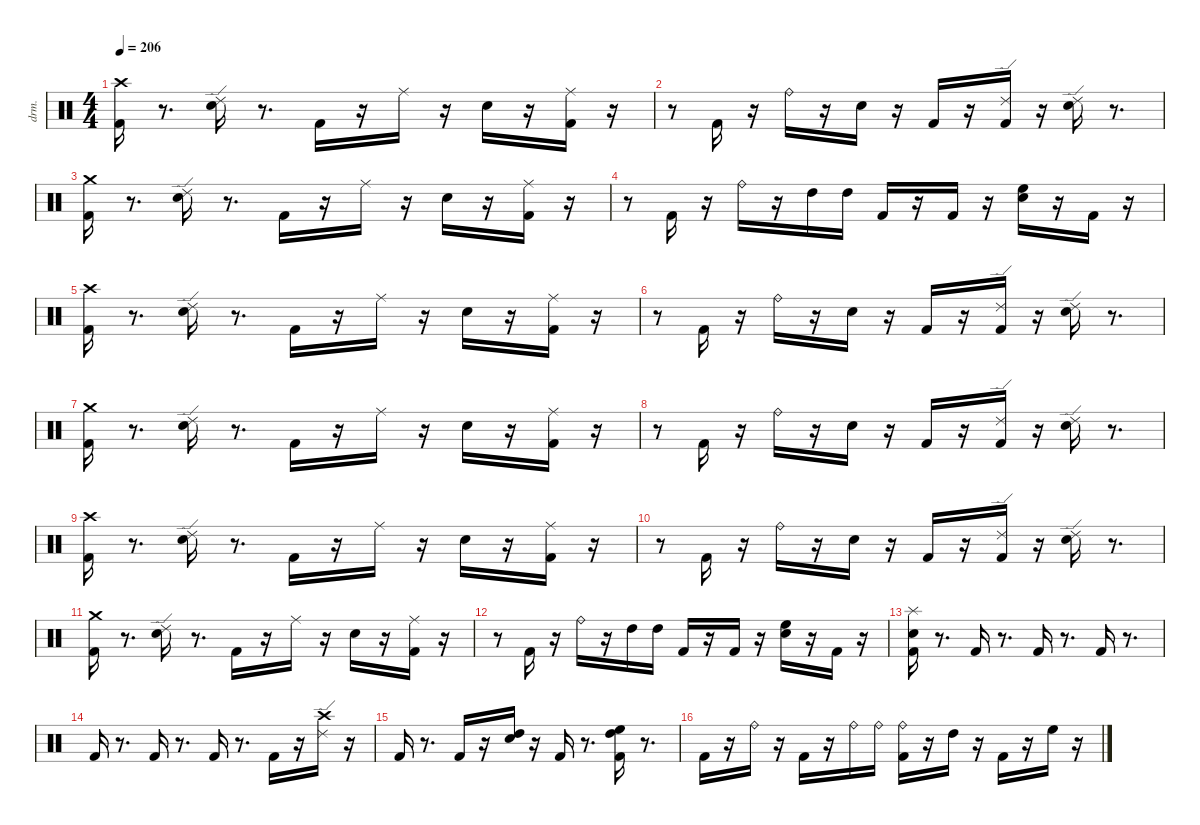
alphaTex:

\defaultSystemsLayout 4
\hideDynamics
\bracketExtendMode nobrackets
\otherSystemsTrackNameOrientation horizontal
\track ("EZdrummer 3" "drm.") {instrument percussion}
\staff {score}
\articulation defaults
\ts (4 4)
\tempo 206
\clef neutral
\ks aminor
("Kick (hit) 2" "Crash high (hit)"{acc #}).16{dy ff beam Down} r.8{d beam Down} ("Snare (hit) 2" "Ride (edge) 2").16{beam Down} r.8{d beam Down} "Kick (hit) 2".16{beam Down} r.16{beam Down} "Ride (middle)"{acc #}.16{dy fff beam Down} r.16{beam Down} "Snare (hit) 2".16{dy ff beam Down} r.16{beam Down} ("Kick (hit) 2" "Ride (middle)"{acc #}).16{beam Down} r.16{beam Down} |
r.8{beam Down} "Kick (hit) 2".16{beam Up} r.16{beam Up} "Ride (bell)".16{beam Down} r.16{beam Down} "Snare (hit) 2".16{beam Down} r.16{beam Down} "Kick (hit) 2".16{dy mf beam Up} r.16{beam Up} ("Kick (hit) 2" "Ride (edge) 2").16{dy fff beam Up} r.16{beam Up} ("Snare (hit) 2" "Ride (edge) 2").16{dy ff beam Down} r.8{d beam Down} |
("Kick (hit) 2" "Crash medium (hit)").16{beam Down} r.8{d beam Down} ("Snare (hit) 2" "Ride (edge) 2").16{beam Down} r.8{d beam Down} "Kick (hit) 2".16{beam Down} r.16{beam Down} "Ride (middle)"{acc #}.16{dy fff beam Down} r.16{beam Down} "Snare (hit) 2".16{dy ff beam Down} r.16{beam Down} ("Kick (hit) 2" "Ride (middle)"{acc #}).16{beam Down} r.16{beam Down} |
r.8{beam Down} "Kick (hit) 2".16{beam Up} r.16{beam Up} "Ride (bell)".16{beam Down} r.16{beam Down} "High Tom (hit)".16{dy fff beam Down} "High Tom (hit)".16{dy ff beam Down} "Kick (hit) 2".16{dy mf beam Up} r.16{beam Up} "Kick (hit) 2".16{dy fff beam Up} r.16{beam Up} ("Snare (hit) 2" "High Floor Tom (hit)").16{dy ff beam Down} r.16{beam Down} "Kick (hit) 2".16{dy mp beam Down} r.16{beam Down} |
("Kick (hit) 2" "Crash high (hit)"{acc #}).16{dy ff beam Down} r.8{d beam Down} ("Snare (hit) 2" "Ride (edge) 2").16{beam Down} r.8{d beam Down} "Kick (hit) 2".16{beam Down} r.16{beam Down} "Ride (middle)"{acc #}.16{dy fff beam Down} r.16{beam Down} "Snare (hit) 2".16{dy ff beam Down} r.16{beam Down} ("Kick (hit) 2" "Ride (middle)"{acc #}).16{beam Down} r.16{beam Down} |
r.8{beam Down} "Kick (hit) 2".16{beam Up} r.16{beam Up} "Ride (bell)".16{dy fff beam Down} r.16{beam Down} "Snare (hit) 2".16{dy ff beam Down} r.16{beam Down} "Kick (hit) 2".16{dy mf beam Up} r.16{beam Up} ("Kick (hit) 2" "Ride (edge) 2").16{dy fff beam Up} r.16{beam Up} ("Snare (hit) 2" "Ride (edge) 2").16{dy ff beam Down} r.8{d beam Down} |
("Kick (hit) 2" "Crash medium (hit)").16{beam Down} r.8{d beam Down} ("Snare (hit) 2" "Ride (edge) 2").16{beam Down} r.8{d beam Down} "Kick (hit) 2".16{beam Down} r.16{beam Down} "Ride (middle)"{acc #}.16{dy fff beam Down} r.16{beam Down} "Snare (hit) 2".16{dy ff beam Down} r.16{beam Down} ("Kick (hit) 2" "Ride (middle)"{acc #}).16{beam Down} r.16{beam Down} |
r.8{beam Down} "Kick (hit) 2".16{beam Up} r.16{beam Up} "Ride (bell)".16{beam Down} r.16{beam Down} "Snare (hit) 2".16{beam Down} r.16{beam Down} "Kick (hit) 2".16{dy mf beam Up} r.16{beam Up} ("Kick (hit) 2" "Ride (edge) 2").16{dy fff beam Up} r.16{beam Up} ("Snare (hit) 2" "Ride (edge) 2").16{dy ff beam Down} r.8{d beam Down} |
("Kick (hit) 2" "Crash high (hit)"{acc #}).16{beam Down} r.8{d beam Down} ("Snare (hit) 2" "Ride (edge) 2").16{beam Down} r.8{d beam Down} "Kick (hit) 2".16{beam Down} r.16{beam Down} "Ride (middle)"{acc #}.16{dy fff beam Down} r.16{beam Down} "Snare (hit) 2".16{dy ff beam Down} r.16{beam Down} ("Kick (hit) 2" "Ride (middle)"{acc #}).16{beam Down} r.16{beam Down} |
r.8{beam Down} "Kick (hit) 2".16{beam Up} r.16{beam Up} "Ride (bell)".16{beam Down} r.16{beam Down} "Snare (hit) 2".16{beam Down} r.16{beam Down} "Kick (hit) 2".16{dy mf beam Up} r.16{beam Up} ("Kick (hit) 2" "Ride (edge) 2").16{dy fff beam Up} r.16{beam Up} ("Snare (hit) 2" "Ride (edge) 2").16{dy ff beam Down} r.8{d beam Down} |
("Kick (hit) 2" "Crash medium (hit)").16{beam Down} r.8{d beam Down} ("Snare (hit) 2" "Ride (edge) 2").16{beam Down} r.8{d beam Down} "Kick (hit) 2".16{beam Down} r.16{beam Down} "Ride (middle)"{acc #}.16{dy fff beam Down} r.16{beam Down} "Snare (hit) 2".16{dy ff beam Down} r.16{beam Down} ("Kick (hit) 2" "Ride (middle)"{acc #}).16{beam Down} r.16{beam Down} |
r.8{beam Down} "Kick (hit) 2".16{beam Up} r.16{beam Up} "Ride (bell)".16{beam Down} r.16{beam Down} "High Tom (hit)".16{dy fff beam Down} "High Tom (hit)".16{dy ff beam Down} "Kick (hit) 2".16{dy mf beam Up} r.16{beam Up} "Kick (hit) 2".16{dy fff beam Up} r.16{beam Up} ("Snare (hit) 2" "High Floor Tom (hit)").16{dy ff beam Down} r.16{beam Down} "Kick (hit) 2".16{dy f beam Down} r.16{beam Down} |
("Kick (hit) 2" "Snare (hit) 2" "Splash (hit)").16{dy fff beam Down} r.8{d beam Down} "Kick (hit) 2".16{dy f beam Up} r.8{d beam Up} "Kick (hit) 2".16{dy fff beam Up} r.8{d beam Up} "Kick (hit) 2".16{dy f beam Up} r.8{d beam Up} |
"Kick (hit) 2".16{dy fff beam Up} r.8{d beam Up} "Kick (hit) 2".16{dy f beam Up} r.8{d beam Up} "Kick (hit) 2".16{dy fff beam Up} r.8{d beam Up} "Kick (hit) 2".16{dy f beam Down} r.16{beam Down} ("Crash high (hit)"{acc #} "Ride (edge) 2").16{dy ff beam Down} r.16{beam Down} |
"Kick (hit) 2".16{dy fff beam Up} r.8{d beam Up} "Kick (hit) 2".16{dy f beam Up} r.16{beam Up} ("Snare (hit) 2" "High Tom (hit)").16{dy ff beam Up} r.16{beam Up} "Kick (hit) 2".16{dy fff beam Up} r.8{d beam Up} ("Kick (hit) 2" "High Tom (hit)" "High Floor Tom (hit)").16{dy f beam Down} r.8{d beam Down} |
"Kick (hit) 2".16{dy fff beam Down} r.16{beam Down} "Ride (bell)".16{dy ff beam Down} r.16{beam Down} "Kick (hit) 2".16{dy f beam Down} r.16{beam Down} "Ride (bell)".16{dy mf beam Down} "Ride (bell)".16{dy mp beam Down} ("Kick (hit) 2" "Ride (bell)").16{dy fff beam Down} r.16{beam Down} "High Tom (hit)".16{dy ff beam Down} r.16{beam Down} "Kick (hit) 2".16{dy f beam Down} r.16{beam Down} "High Floor Tom (hit)".16{dy ff beam Down} r.16{beam Down}
